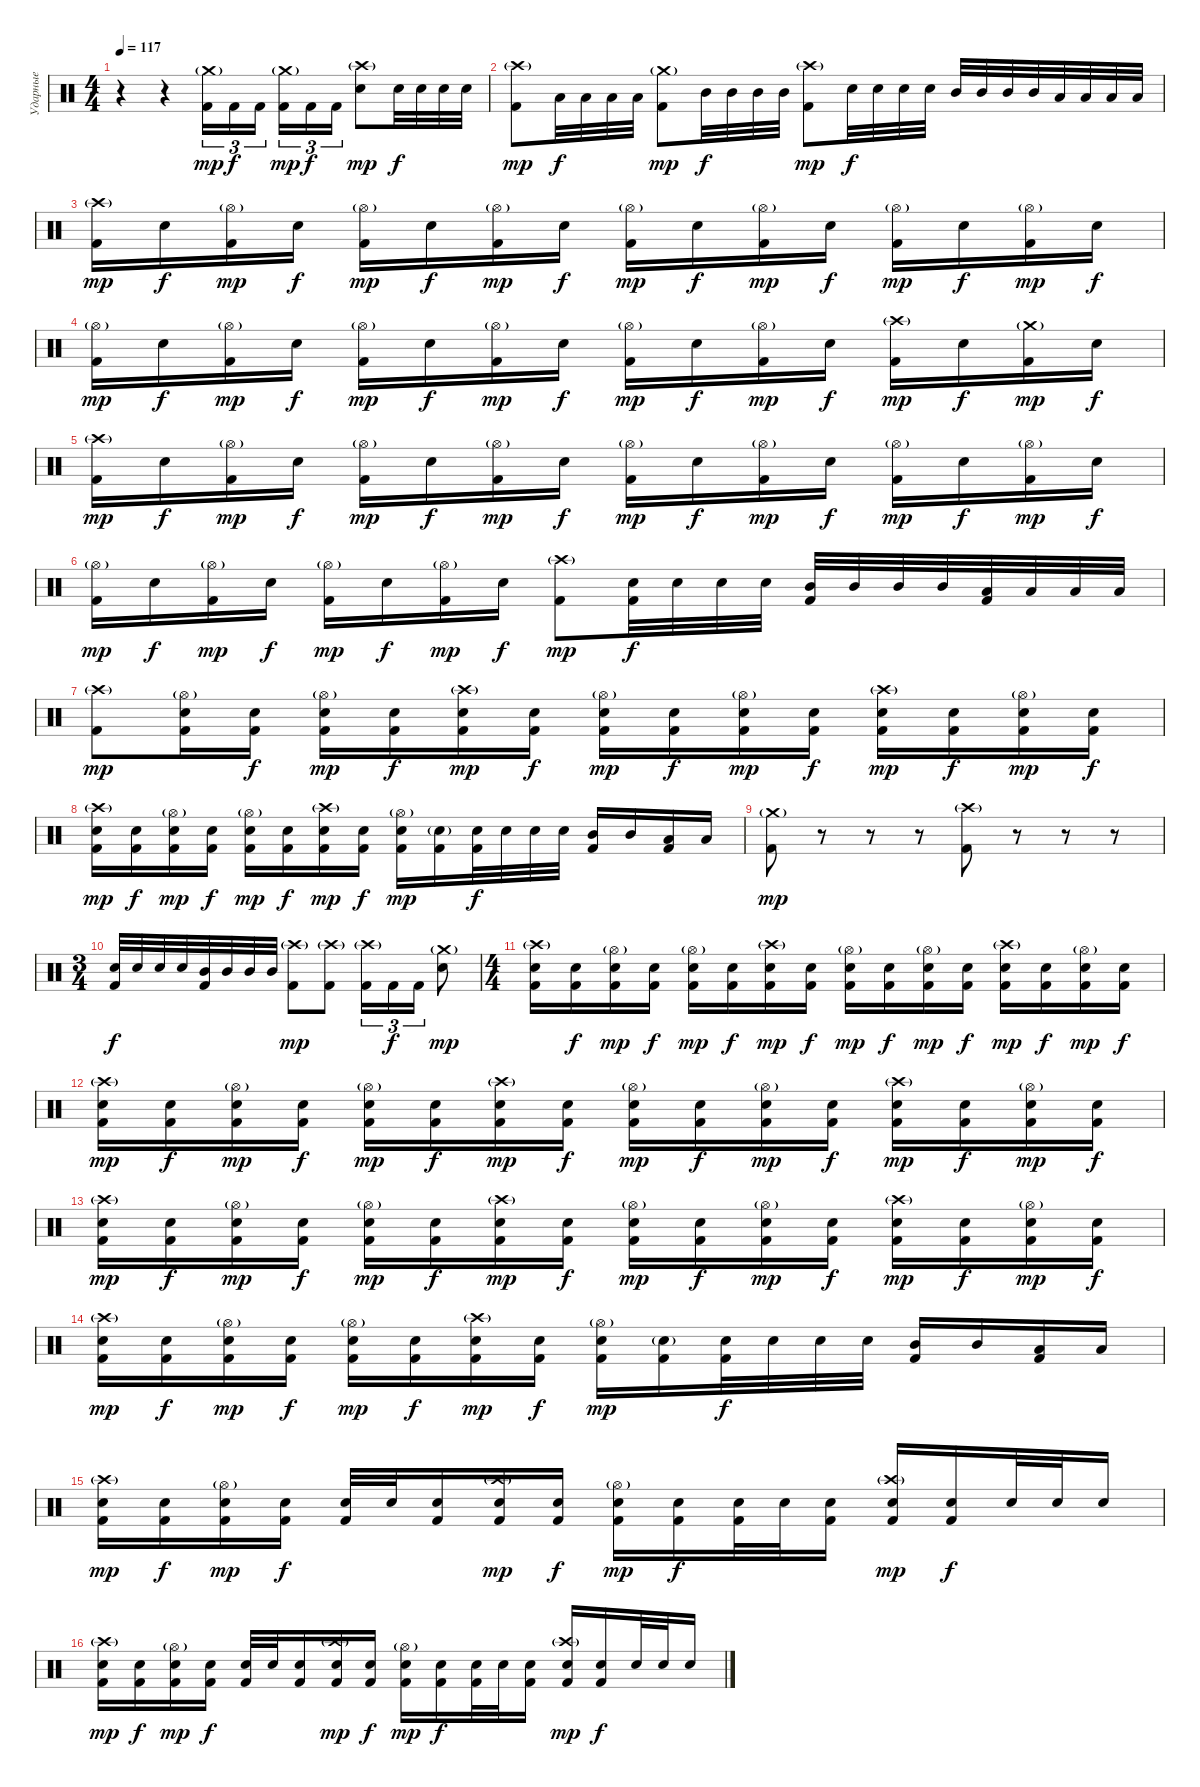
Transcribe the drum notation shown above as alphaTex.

\track ("Ударные" "Ударные") {instrument percussion}
\staff {score}
\articulation defaults
\ts (4 4)
\tempo 117
\clef neutral
\ks c
r.4{dy mp} r.4 ("Crash medium (hit)"{g} "Kick (hit) 2").16{tu (3 2)} "Kick (hit) 2".16{tu (3 2) dy f} "Kick (hit) 2".16{tu (3 2)} ("Crash medium (hit)"{g} "Kick (hit) 2").16{tu (3 2) dy mp} "Kick (hit) 2".16{tu (3 2) dy f} "Kick (hit) 2".16{tu (3 2)} ("Crash high (hit)"{g} "Electric Snare (hit)").8{dy mp} "Electric Snare (hit)".32{dy f} "Electric Snare (hit)".32 "Electric Snare (hit)".32 "Electric Snare (hit)".32 |
("Crash high (hit)"{g} "Kick (hit) 2").8{dy mp} "Low Tom (hit)".32{dy f} "Low Tom (hit)".32 "Low Tom (hit)".32 "Low Tom (hit)".32 ("Crash medium (hit)"{g} "Kick (hit) 2").8{dy mp} "Mid Tom (hit)".32{dy f} "Mid Tom (hit)".32 "Mid Tom (hit)".32 "Mid Tom (hit)".32 ("Crash high (hit)"{g} "Kick (hit) 2").8{dy mp} "Electric Snare (hit)".32{dy f} "Electric Snare (hit)".32 "Electric Snare (hit)".32 "Electric Snare (hit)".32 "Mid Tom (hit)".32 "Mid Tom (hit)".32 "Mid Tom (hit)".32 "Mid Tom (hit)".32 "Low Tom (hit)".32 "Low Tom (hit)".32 "Low Tom (hit)".32 "Low Tom (hit)".32 |
("Crash high (hit)"{g} "Kick (hit) 2").16{dy mp} "Electric Snare (hit)".16{dy f} ("Hi-Hat (open)"{g} "Kick (hit) 2").16{dy mp} "Electric Snare (hit)".16{dy f} ("Hi-Hat (open)"{g} "Kick (hit) 2").16{dy mp} "Electric Snare (hit)".16{dy f} ("Hi-Hat (open)"{g} "Kick (hit) 2").16{dy mp} "Electric Snare (hit)".16{dy f} ("Hi-Hat (open)"{g} "Kick (hit) 2").16{dy mp} "Electric Snare (hit)".16{dy f} ("Hi-Hat (open)"{g} "Kick (hit) 2").16{dy mp} "Electric Snare (hit)".16{dy f} ("Hi-Hat (open)"{g} "Kick (hit) 2").16{dy mp} "Electric Snare (hit)".16{dy f} ("Hi-Hat (open)"{g} "Kick (hit) 2").16{dy mp} "Electric Snare (hit)".16{dy f} |
("Hi-Hat (open)"{g} "Kick (hit) 2").16{dy mp} "Electric Snare (hit)".16{dy f} ("Hi-Hat (open)"{g} "Kick (hit) 2").16{dy mp} "Electric Snare (hit)".16{dy f} ("Hi-Hat (open)"{g} "Kick (hit) 2").16{dy mp} "Electric Snare (hit)".16{dy f} ("Hi-Hat (open)"{g} "Kick (hit) 2").16{dy mp} "Electric Snare (hit)".16{dy f} ("Hi-Hat (open)"{g} "Kick (hit) 2").16{dy mp} "Electric Snare (hit)".16{dy f} ("Hi-Hat (open)"{g} "Kick (hit) 2").16{dy mp} "Electric Snare (hit)".16{dy f} ("Crash high (hit)"{g} "Kick (hit) 2").16{dy mp} "Electric Snare (hit)".16{dy f} ("Crash medium (hit)"{g} "Kick (hit) 2").16{dy mp} "Electric Snare (hit)".16{dy f} |
("Crash high (hit)"{g} "Kick (hit) 2").16{dy mp} "Electric Snare (hit)".16{dy f} ("Hi-Hat (open)"{g} "Kick (hit) 2").16{dy mp} "Electric Snare (hit)".16{dy f} ("Hi-Hat (open)"{g} "Kick (hit) 2").16{dy mp} "Electric Snare (hit)".16{dy f} ("Hi-Hat (open)"{g} "Kick (hit) 2").16{dy mp} "Electric Snare (hit)".16{dy f} ("Hi-Hat (open)"{g} "Kick (hit) 2").16{dy mp} "Electric Snare (hit)".16{dy f} ("Hi-Hat (open)"{g} "Kick (hit) 2").16{dy mp} "Electric Snare (hit)".16{dy f} ("Hi-Hat (open)"{g} "Kick (hit) 2").16{dy mp} "Electric Snare (hit)".16{dy f} ("Hi-Hat (open)"{g} "Kick (hit) 2").16{dy mp} "Electric Snare (hit)".16{dy f} |
("Hi-Hat (open)"{g} "Kick (hit) 2").16{dy mp} "Electric Snare (hit)".16{dy f} ("Hi-Hat (open)"{g} "Kick (hit) 2").16{dy mp} "Electric Snare (hit)".16{dy f} ("Hi-Hat (open)"{g} "Kick (hit) 2").16{dy mp} "Electric Snare (hit)".16{dy f} ("Hi-Hat (open)"{g} "Kick (hit) 2").16{dy mp} "Electric Snare (hit)".16{dy f} ("Crash high (hit)"{g} "Kick (hit) 2").8{dy mp} ("Electric Snare (hit)" "Kick (hit) 2").32{dy f} "Electric Snare (hit)".32 "Electric Snare (hit)".32 "Electric Snare (hit)".32 ("Mid Tom (hit)" "Kick (hit) 2").32 "Mid Tom (hit)".32 "Mid Tom (hit)".32 "Mid Tom (hit)".32 ("Low Tom (hit)" "Kick (hit) 2").32 "Low Tom (hit)".32 "Low Tom (hit)".32 "Low Tom (hit)".32 |
("Crash high (hit)"{g} "Kick (hit) 2").8{dy mp} ("Hi-Hat (open)"{g} "Electric Snare (hit)" "Kick (hit) 2").16 ("Electric Snare (hit)" "Kick (hit) 2").16{dy f} ("Hi-Hat (open)"{g} "Electric Snare (hit)" "Kick (hit) 2").16{dy mp} ("Electric Snare (hit)" "Kick (hit) 2").16{dy f} ("Crash high (hit)"{g} "Electric Snare (hit)" "Kick (hit) 2").16{dy mp} ("Electric Snare (hit)" "Kick (hit) 2").16{dy f} ("Hi-Hat (open)"{g} "Electric Snare (hit)" "Kick (hit) 2").16{dy mp} ("Electric Snare (hit)" "Kick (hit) 2").16{dy f} ("Hi-Hat (open)"{g} "Electric Snare (hit)" "Kick (hit) 2").16{dy mp} ("Electric Snare (hit)" "Kick (hit) 2").16{dy f} ("Crash high (hit)"{g} "Electric Snare (hit)" "Kick (hit) 2").16{dy mp} ("Electric Snare (hit)" "Kick (hit) 2").16{dy f} ("Hi-Hat (open)"{g} "Electric Snare (hit)" "Kick (hit) 2").16{dy mp} ("Electric Snare (hit)" "Kick (hit) 2").16{dy f} |
("Crash high (hit)"{g} "Electric Snare (hit)" "Kick (hit) 2").16{dy mp} ("Electric Snare (hit)" "Kick (hit) 2").16{dy f} ("Hi-Hat (open)"{g} "Electric Snare (hit)" "Kick (hit) 2").16{dy mp} ("Electric Snare (hit)" "Kick (hit) 2").16{dy f} ("Hi-Hat (open)"{g} "Electric Snare (hit)" "Kick (hit) 2").16{dy mp} ("Electric Snare (hit)" "Kick (hit) 2").16{dy f} ("Crash high (hit)"{g} "Electric Snare (hit)" "Kick (hit) 2").16{dy mp} ("Electric Snare (hit)" "Kick (hit) 2").16{dy f} ("Hi-Hat (open)"{g} "Electric Snare (hit)" "Kick (hit) 2").16{dy mp} ("Electric Snare (hit)"{g} "Kick (hit) 2").16 ("Electric Snare (hit)" "Kick (hit) 2").32{dy f} "Electric Snare (hit)".32 "Electric Snare (hit)".32 "Electric Snare (hit)".32 ("Mid Tom (hit)" "Kick (hit) 2").16 "Mid Tom (hit)".16 ("Low Tom (hit)" "Kick (hit) 2").16 "Low Tom (hit)".16 |
("Crash medium (hit)"{g} "Kick (hit) 2").8{dy mp} r.8{volume 0} r.8 r.8 ("Crash high (hit)"{g} "Kick (hit) 2").8{volume 16} r.8{volume 0} r.8 r.8 |
\ts (3 4)
("Electric Snare (hit)" "Kick (hit) 2").32{dy f volume 16} "Electric Snare (hit)".32 "Electric Snare (hit)".32 "Electric Snare (hit)".32 ("Mid Tom (hit)" "Kick (hit) 2").32 "Mid Tom (hit)".32 "Mid Tom (hit)".32 "Mid Tom (hit)".32 ("Crash high (hit)"{g} "Kick (hit) 2").8{dy mp} ("Crash high (hit)"{g} "Kick (hit) 2").8 ("Crash high (hit)"{g} "Kick (hit) 2").16{tu (3 2)} "Kick (hit) 2".16{tu (3 2) dy f} "Kick (hit) 2".16{tu (3 2)} ("Crash medium (hit)"{g} "Electric Snare (hit)").8{dy mp} |
\ts (4 4)
("Crash high (hit)"{g} "Electric Snare (hit)" "Kick (hit) 2").16 ("Electric Snare (hit)" "Kick (hit) 2").16{dy f} ("Hi-Hat (open)"{g} "Electric Snare (hit)" "Kick (hit) 2").16{dy mp} ("Electric Snare (hit)" "Kick (hit) 2").16{dy f} ("Hi-Hat (open)"{g} "Electric Snare (hit)" "Kick (hit) 2").16{dy mp} ("Electric Snare (hit)" "Kick (hit) 2").16{dy f} ("Crash high (hit)"{g} "Electric Snare (hit)" "Kick (hit) 2").16{dy mp} ("Electric Snare (hit)" "Kick (hit) 2").16{dy f} ("Hi-Hat (open)"{g} "Electric Snare (hit)" "Kick (hit) 2").16{dy mp} ("Electric Snare (hit)" "Kick (hit) 2").16{dy f} ("Hi-Hat (open)"{g} "Electric Snare (hit)" "Kick (hit) 2").16{dy mp} ("Electric Snare (hit)" "Kick (hit) 2").16{dy f} ("Crash high (hit)"{g} "Electric Snare (hit)" "Kick (hit) 2").16{dy mp} ("Electric Snare (hit)" "Kick (hit) 2").16{dy f} ("Hi-Hat (open)"{g} "Electric Snare (hit)" "Kick (hit) 2").16{dy mp} ("Electric Snare (hit)" "Kick (hit) 2").16{dy f} |
("Crash high (hit)"{g} "Electric Snare (hit)" "Kick (hit) 2").16{dy mp} ("Electric Snare (hit)" "Kick (hit) 2").16{dy f} ("Hi-Hat (open)"{g} "Electric Snare (hit)" "Kick (hit) 2").16{dy mp} ("Electric Snare (hit)" "Kick (hit) 2").16{dy f} ("Hi-Hat (open)"{g} "Electric Snare (hit)" "Kick (hit) 2").16{dy mp} ("Electric Snare (hit)" "Kick (hit) 2").16{dy f} ("Crash high (hit)"{g} "Electric Snare (hit)" "Kick (hit) 2").16{dy mp} ("Electric Snare (hit)" "Kick (hit) 2").16{dy f} ("Hi-Hat (open)"{g} "Electric Snare (hit)" "Kick (hit) 2").16{dy mp} ("Electric Snare (hit)" "Kick (hit) 2").16{dy f} ("Hi-Hat (open)"{g} "Electric Snare (hit)" "Kick (hit) 2").16{dy mp} ("Electric Snare (hit)" "Kick (hit) 2").16{dy f} ("Crash high (hit)"{g} "Electric Snare (hit)" "Kick (hit) 2").16{dy mp} ("Electric Snare (hit)" "Kick (hit) 2").16{dy f} ("Hi-Hat (open)"{g} "Electric Snare (hit)" "Kick (hit) 2").16{dy mp} ("Electric Snare (hit)" "Kick (hit) 2").16{dy f} |
("Crash high (hit)"{g} "Electric Snare (hit)" "Kick (hit) 2").16{dy mp} ("Electric Snare (hit)" "Kick (hit) 2").16{dy f} ("Hi-Hat (open)"{g} "Electric Snare (hit)" "Kick (hit) 2").16{dy mp} ("Electric Snare (hit)" "Kick (hit) 2").16{dy f} ("Hi-Hat (open)"{g} "Electric Snare (hit)" "Kick (hit) 2").16{dy mp} ("Electric Snare (hit)" "Kick (hit) 2").16{dy f} ("Crash high (hit)"{g} "Electric Snare (hit)" "Kick (hit) 2").16{dy mp} ("Electric Snare (hit)" "Kick (hit) 2").16{dy f} ("Hi-Hat (open)"{g} "Electric Snare (hit)" "Kick (hit) 2").16{dy mp} ("Electric Snare (hit)" "Kick (hit) 2").16{dy f} ("Hi-Hat (open)"{g} "Electric Snare (hit)" "Kick (hit) 2").16{dy mp} ("Electric Snare (hit)" "Kick (hit) 2").16{dy f} ("Crash high (hit)"{g} "Electric Snare (hit)" "Kick (hit) 2").16{dy mp} ("Electric Snare (hit)" "Kick (hit) 2").16{dy f} ("Hi-Hat (open)"{g} "Electric Snare (hit)" "Kick (hit) 2").16{dy mp} ("Electric Snare (hit)" "Kick (hit) 2").16{dy f} |
("Crash high (hit)"{g} "Electric Snare (hit)" "Kick (hit) 2").16{dy mp} ("Electric Snare (hit)" "Kick (hit) 2").16{dy f} ("Hi-Hat (open)"{g} "Electric Snare (hit)" "Kick (hit) 2").16{dy mp} ("Electric Snare (hit)" "Kick (hit) 2").16{dy f} ("Hi-Hat (open)"{g} "Electric Snare (hit)" "Kick (hit) 2").16{dy mp} ("Electric Snare (hit)" "Kick (hit) 2").16{dy f} ("Crash high (hit)"{g} "Electric Snare (hit)" "Kick (hit) 2").16{dy mp} ("Electric Snare (hit)" "Kick (hit) 2").16{dy f} ("Hi-Hat (open)"{g} "Electric Snare (hit)" "Kick (hit) 2").16{dy mp} ("Electric Snare (hit)"{g} "Kick (hit) 2").16 ("Electric Snare (hit)" "Kick (hit) 2").32{dy f} "Electric Snare (hit)".32 "Electric Snare (hit)".32 "Electric Snare (hit)".32 ("Mid Tom (hit)" "Kick (hit) 2").16 "Mid Tom (hit)".16 ("Low Tom (hit)" "Kick (hit) 2").16 "Low Tom (hit)".16 |
("Crash high (hit)"{g} "Electric Snare (hit)" "Kick (hit) 2").16{dy mp} ("Electric Snare (hit)" "Kick (hit) 2").16{dy f} ("Hi-Hat (open)"{g} "Electric Snare (hit)" "Kick (hit) 2").16{dy mp} ("Electric Snare (hit)" "Kick (hit) 2").16{dy f} ("Electric Snare (hit)" "Kick (hit) 2").32 "Electric Snare (hit)".32 ("Electric Snare (hit)" "Kick (hit) 2").16 ("Crash high (hit)"{g} "Electric Snare (hit)" "Kick (hit) 2").16{dy mp} ("Electric Snare (hit)" "Kick (hit) 2").16{dy f} ("Hi-Hat (open)"{g} "Electric Snare (hit)" "Kick (hit) 2").16{dy mp} ("Electric Snare (hit)" "Kick (hit) 2").16{dy f} ("Electric Snare (hit)" "Kick (hit) 2").32 "Electric Snare (hit)".32 ("Electric Snare (hit)" "Kick (hit) 2").16 ("Crash high (hit)"{g} "Electric Snare (hit)" "Kick (hit) 2").16{dy mp} ("Electric Snare (hit)" "Kick (hit) 2").16{dy f} "Electric Snare (hit)".32 "Electric Snare (hit)".32 "Electric Snare (hit)".16 |
("Crash high (hit)"{g} "Electric Snare (hit)" "Kick (hit) 2").16{dy mp} ("Electric Snare (hit)" "Kick (hit) 2").16{dy f} ("Hi-Hat (open)"{g} "Electric Snare (hit)" "Kick (hit) 2").16{dy mp} ("Electric Snare (hit)" "Kick (hit) 2").16{dy f} ("Electric Snare (hit)" "Kick (hit) 2").32 "Electric Snare (hit)".32 ("Electric Snare (hit)" "Kick (hit) 2").16 ("Crash high (hit)"{g} "Electric Snare (hit)" "Kick (hit) 2").16{dy mp} ("Electric Snare (hit)" "Kick (hit) 2").16{dy f} ("Hi-Hat (open)"{g} "Electric Snare (hit)" "Kick (hit) 2").16{dy mp} ("Electric Snare (hit)" "Kick (hit) 2").16{dy f} ("Electric Snare (hit)" "Kick (hit) 2").32 "Electric Snare (hit)".32 ("Electric Snare (hit)" "Kick (hit) 2").16 ("Crash high (hit)"{g} "Electric Snare (hit)" "Kick (hit) 2").16{dy mp} ("Electric Snare (hit)" "Kick (hit) 2").16{dy f} "Electric Snare (hit)".32 "Electric Snare (hit)".32 "Electric Snare (hit)".16
